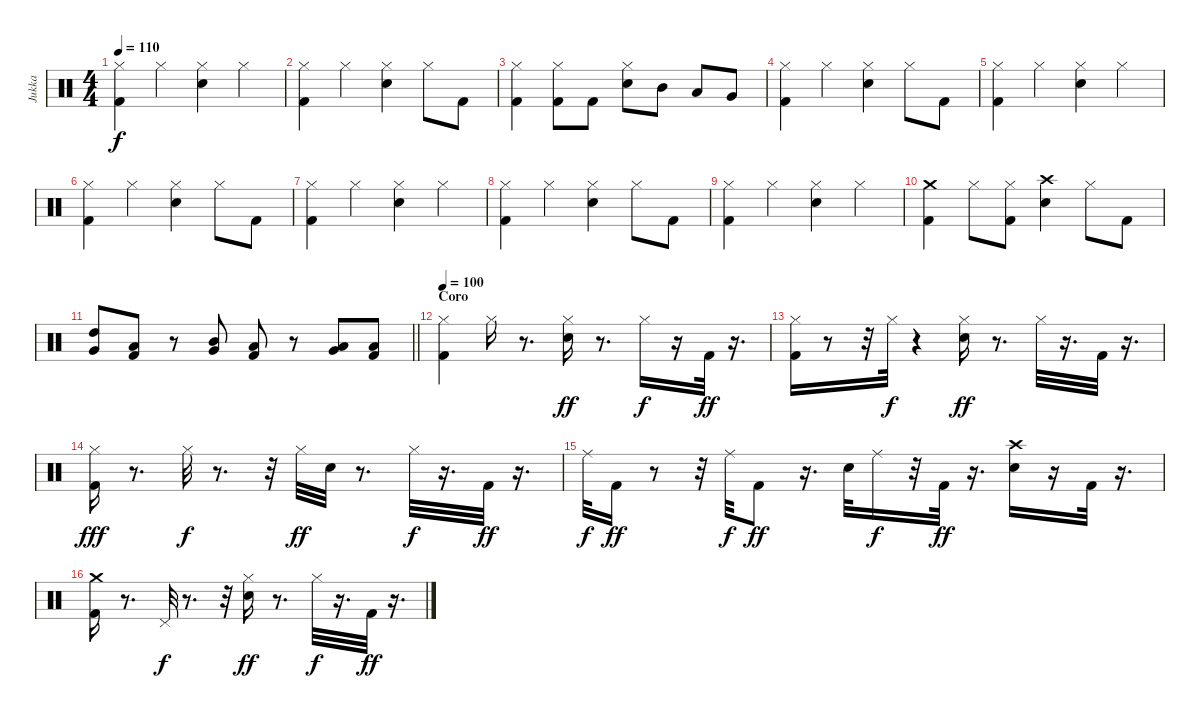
\track ("Jukka" "Jukka") {instrument percussion}
\staff {score}
\articulation defaults
\ts (4 4)
\tempo 110
\clef neutral
\ks c
("Hi-Hat (closed)" "Kick (hit) 2").4{dy f} "Hi-Hat (closed)".4 ("Hi-Hat (closed)" "Snare (hit) 2").4 "Hi-Hat (closed)".4 |
("Hi-Hat (closed)" "Kick (hit) 2").4 "Hi-Hat (closed)".4 ("Hi-Hat (closed)" "Snare (hit) 2").4 "Hi-Hat (closed)".8 "Kick (hit) 2".8 |
("Hi-Hat (closed)" "Kick (hit) 2").4 ("Hi-Hat (closed)" "Kick (hit) 2").8 "Kick (hit) 2".8 ("Hi-Hat (closed)" "Snare (hit) 2").8 "Mid Tom (hit)".8 "Low Tom (hit)".8 "Very Low Tom (hit)".8 |
("Hi-Hat (closed)" "Kick (hit) 2").4 "Hi-Hat (closed)".4 ("Hi-Hat (closed)" "Snare (hit) 2").4 "Hi-Hat (closed)".8 "Kick (hit) 2".8 |
("Hi-Hat (closed)" "Kick (hit) 2").4 "Hi-Hat (closed)".4 ("Hi-Hat (closed)" "Snare (hit) 2").4 "Hi-Hat (closed)".4 |
("Hi-Hat (closed)" "Kick (hit) 2").4 "Hi-Hat (closed)".4 ("Hi-Hat (closed)" "Snare (hit) 2").4 "Hi-Hat (closed)".8 "Kick (hit) 2".8 |
("Hi-Hat (closed)" "Kick (hit) 2").4 "Hi-Hat (closed)".4 ("Hi-Hat (closed)" "Snare (hit) 2").4 "Hi-Hat (closed)".4 |
("Hi-Hat (closed)" "Kick (hit) 2").4 "Hi-Hat (closed)".4 ("Hi-Hat (closed)" "Snare (hit) 2").4 "Hi-Hat (closed)".8 "Kick (hit) 2".8 |
("Hi-Hat (closed)" "Kick (hit) 2").4 "Hi-Hat (closed)".4 ("Hi-Hat (closed)" "Snare (hit) 2").4 "Hi-Hat (closed)".4 |
("Crash medium (hit)" "Kick (hit) 2").4 "Hi-Hat (closed)".8 ("Hi-Hat (closed)" "Kick (hit) 2").8 ("Crash high (hit)" "Snare (hit) 2").4 "Hi-Hat (closed)".8 "Kick (hit) 2".8 |
\barLineRight lightlight
("High Tom (hit)" "Very Low Tom (hit)").8 ("Low Floor Tom (hit)" "Kick (hit) 2").8 r.8 ("Mid Tom (hit)" "Very Low Tom (hit)").8 ("Low Floor Tom (hit)" "Kick (hit) 2").8 r.8 ("Low Tom (hit)" "Very Low Tom (hit)").8 ("Low Floor Tom (hit)" "Kick (hit) 2").8 |
\section ("" "Coro")
\tempo 100
("Hi-Hat (closed)" "Kick (hit) 2").4 "Hi-Hat (closed)".16 r.8{d} ("Hi-Hat (closed)" "Electric Snare (hit)").16{dy ff} r.8{d} "Hi-Hat (closed)".16{dy f} r.16 "Kick (hit) 2".32{dy ff} r.16{d} |
("Hi-Hat (closed)" "Kick (hit) 2").16 r.8 r.32 "Hi-Hat (closed)".32{dy f} r.4 ("Hi-Hat (closed)" "Electric Snare (hit)").16{dy ff} r.8{d} "Hi-Hat (closed)".32 r.16{d} "Kick (hit) 2".32 r.16{d} |
("Hi-Hat (closed)" "Kick (hit) 2").16{dy fff} r.8{d} "Hi-Hat (closed)".32{dy f} r.8{d} r.32 "Hi-Hat (closed)".32{dy ff} "Electric Snare (hit)".32 r.8{d} "Hi-Hat (closed)".32{dy f} r.16{d} "Kick (hit) 2".32{dy ff} r.16{d} |
"Ride (middle)".32{dy f} "Kick (hit) 2".16{dy ff} r.8 r.32 "Ride (middle)".32{dy f} "Kick (hit) 2".8{dy ff} r.16{d} "Electric Snare (hit)".32 "Ride (middle)".16{dy f} r.32 "Kick (hit) 2".32{dy ff} r.16{d} ("Crash high (hit)" "Electric Snare (hit)").16 r.16 "Kick (hit) 2".32 r.16{d} |
("Crash medium (hit)" "Kick (hit) 2").16 r.8{d} "Pedal Hi-Hat (hit)".32{dy f} r.8{d} r.32 ("Hi-Hat (closed)" "Electric Snare (hit)").16{dy ff} r.8{d} "Hi-Hat (closed)".32{dy f} r.16{d} "Kick (hit) 2".32{dy ff} r.16{d}
